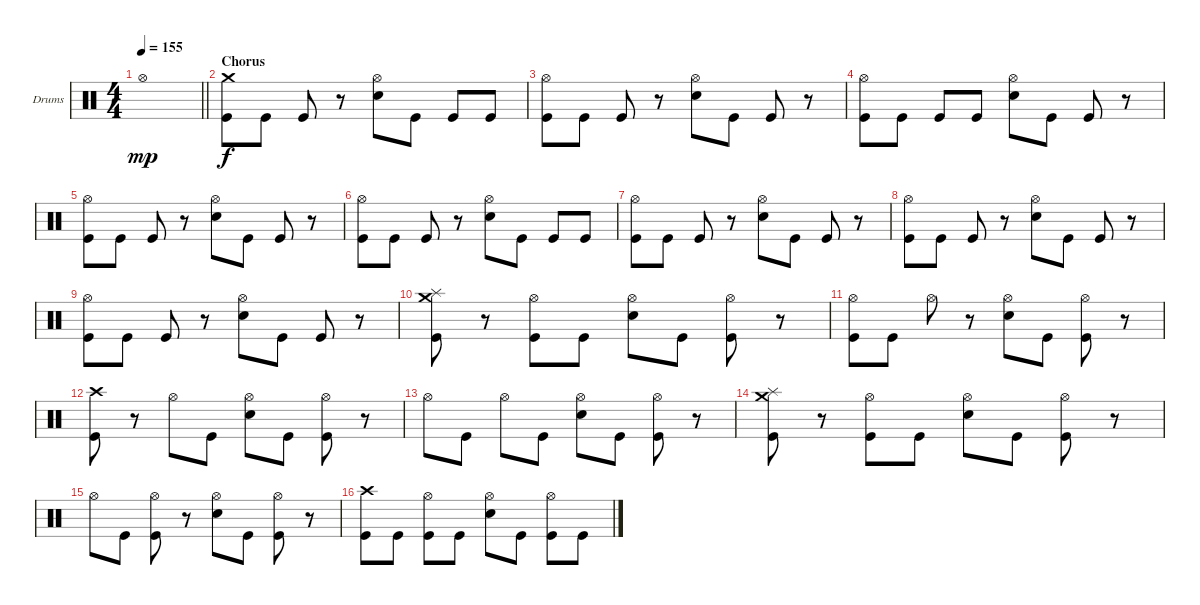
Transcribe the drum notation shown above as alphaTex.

\defaultSystemsLayout 4
\bracketExtendMode groupsimilarinstruments
\firstSystemTrackNameOrientation horizontal
\otherSystemsTrackNameOrientation horizontal
\track ("Drumkit" "Drums") {instrument percussion}
\staff {score}
\articulation defaults
\ts (4 4)
\tempo 155
\clef neutral
\barLineRight lightlight
\ks c "Hi-Hat (open)".1{dy mp}
|
\section ("" "Chorus")
("Crash medium (hit)" "Kick (hit)").8{dy f} "Kick (hit)".8 "Kick (hit)".8 r.8 ("Snare (hit) 2" "Hi-Hat (open)").8 "Kick (hit)".8 "Kick (hit)".8 "Kick (hit)".8 |
("Kick (hit)" "Hi-Hat (open)").8 "Kick (hit)".8 "Kick (hit)".8 r.8 ("Snare (hit) 2" "Hi-Hat (open)").8 "Kick (hit)".8 "Kick (hit)".8 r.8 |
("Kick (hit)" "Hi-Hat (open)").8 "Kick (hit)".8 "Kick (hit)".8 "Kick (hit)".8 ("Snare (hit) 2" "Hi-Hat (open)").8 "Kick (hit)".8 "Kick (hit)".8 r.8 |
("Kick (hit)" "Hi-Hat (open)").8 "Kick (hit)".8 "Kick (hit)".8 r.8 ("Snare (hit) 2" "Hi-Hat (open)").8 "Kick (hit)".8 "Kick (hit)".8 r.8 |
("Kick (hit)" "Hi-Hat (open)").8 "Kick (hit)".8 "Kick (hit)".8 r.8 ("Snare (hit) 2" "Hi-Hat (open)").8 "Kick (hit)".8 "Kick (hit)".8 "Kick (hit)".8 |
("Kick (hit)" "Hi-Hat (open)").8 "Kick (hit)".8 "Kick (hit)".8 r.8 ("Snare (hit) 2" "Hi-Hat (open)").8 "Kick (hit)".8 "Kick (hit)".8 r.8 |
("Kick (hit)" "Hi-Hat (open)").8 "Kick (hit)".8 "Kick (hit)".8 r.8 ("Snare (hit) 2" "Hi-Hat (open)").8 "Kick (hit)".8 "Kick (hit)".8 r.8 |
("Kick (hit)" "Hi-Hat (open)").8 "Kick (hit)".8 "Kick (hit)".8 r.8 ("Snare (hit) 2" "Hi-Hat (open)").8 "Kick (hit)".8 "Kick (hit)".8 r.8 |
("Splash (hit)" "Crash medium (hit)" "Kick (hit)").8 r.8 ("Hi-Hat (open)" "Kick (hit)").8 "Kick (hit)".8 ("Hi-Hat (open)" "Snare (hit) 2").8 "Kick (hit)".8 ("Hi-Hat (open)" "Kick (hit)").8 r.8 |
("Hi-Hat (open)" "Kick (hit)").8 "Kick (hit)".8 "Hi-Hat (open)".8 r.8 ("Hi-Hat (open)" "Snare (hit) 2").8 "Kick (hit)".8 ("Hi-Hat (open)" "Kick (hit)").8 r.8 |
("Crash high (hit)" "Kick (hit)").8 r.8 "Hi-Hat (open)".8 "Kick (hit)".8 ("Hi-Hat (open)" "Snare (hit) 2").8 "Kick (hit)".8 ("Hi-Hat (open)" "Kick (hit)").8 r.8 |
"Hi-Hat (open)".8 "Kick (hit)".8 "Hi-Hat (open)".8 "Kick (hit)".8 ("Hi-Hat (open)" "Snare (hit) 2").8 "Kick (hit)".8 ("Hi-Hat (open)" "Kick (hit)").8 r.8 |
("Splash (hit)" "Crash medium (hit)" "Kick (hit)").8 r.8 ("Hi-Hat (open)" "Kick (hit)").8 "Kick (hit)".8 ("Hi-Hat (open)" "Snare (hit) 2").8 "Kick (hit)".8 ("Hi-Hat (open)" "Kick (hit)").8 r.8 |
"Hi-Hat (open)".8 "Kick (hit)".8 ("Hi-Hat (open)" "Kick (hit)").8 r.8 ("Hi-Hat (open)" "Snare (hit) 2").8 "Kick (hit)".8 ("Hi-Hat (open)" "Kick (hit)").8 r.8 |
("Crash high (hit)" "Kick (hit)").8 "Kick (hit)".8 ("Hi-Hat (open)" "Kick (hit)").8 "Kick (hit)".8 ("Hi-Hat (open)" "Snare (hit) 2").8 "Kick (hit)".8 ("Hi-Hat (open)" "Kick (hit)").8 "Kick (hit)".8
